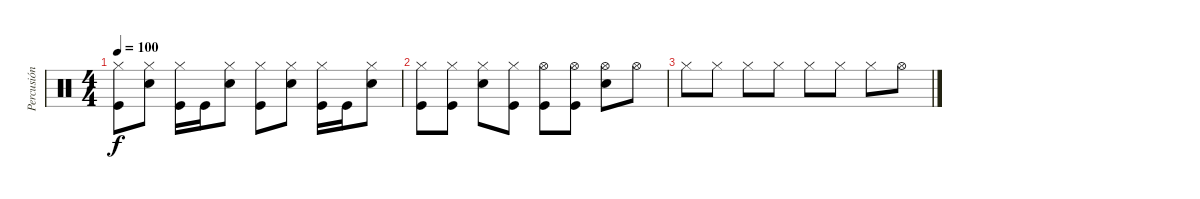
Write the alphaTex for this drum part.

\track ("Percusión" "Percusión") {instrument percussion}
\staff {score}
\articulation defaults
\ts (4 4)
\tempo 100
\clef neutral
\ks c
("Hi-Hat (closed)" "Kick (hit)").8{dy f} ("Hi-Hat (closed)" "Electric Snare (hit)").8 ("Hi-Hat (closed)" "Kick (hit)").16 "Kick (hit)".16 ("Hi-Hat (closed)" "Electric Snare (hit)").8 ("Hi-Hat (closed)" "Kick (hit)").8 ("Hi-Hat (closed)" "Electric Snare (hit)").8 ("Hi-Hat (closed)" "Kick (hit)").16 "Kick (hit)".16 ("Hi-Hat (closed)" "Electric Snare (hit)").8 |
("Hi-Hat (closed)" "Kick (hit)").8 ("Hi-Hat (closed)" "Kick (hit)").8 ("Hi-Hat (closed)" "Electric Snare (hit)").8 ("Hi-Hat (closed)" "Kick (hit)").8 ("Hi-Hat (open)" "Kick (hit)").8 ("Hi-Hat (open)" "Kick (hit)").8 ("Hi-Hat (open)" "Electric Snare (hit)").8 "Hi-Hat (open)".8 |
"Hi-Hat (closed)".8 "Hi-Hat (closed)".8 "Hi-Hat (closed)".8 "Hi-Hat (closed)".8 "Hi-Hat (closed)".8 "Hi-Hat (closed)".8 "Hi-Hat (closed)".8 "Hi-Hat (open)".8
